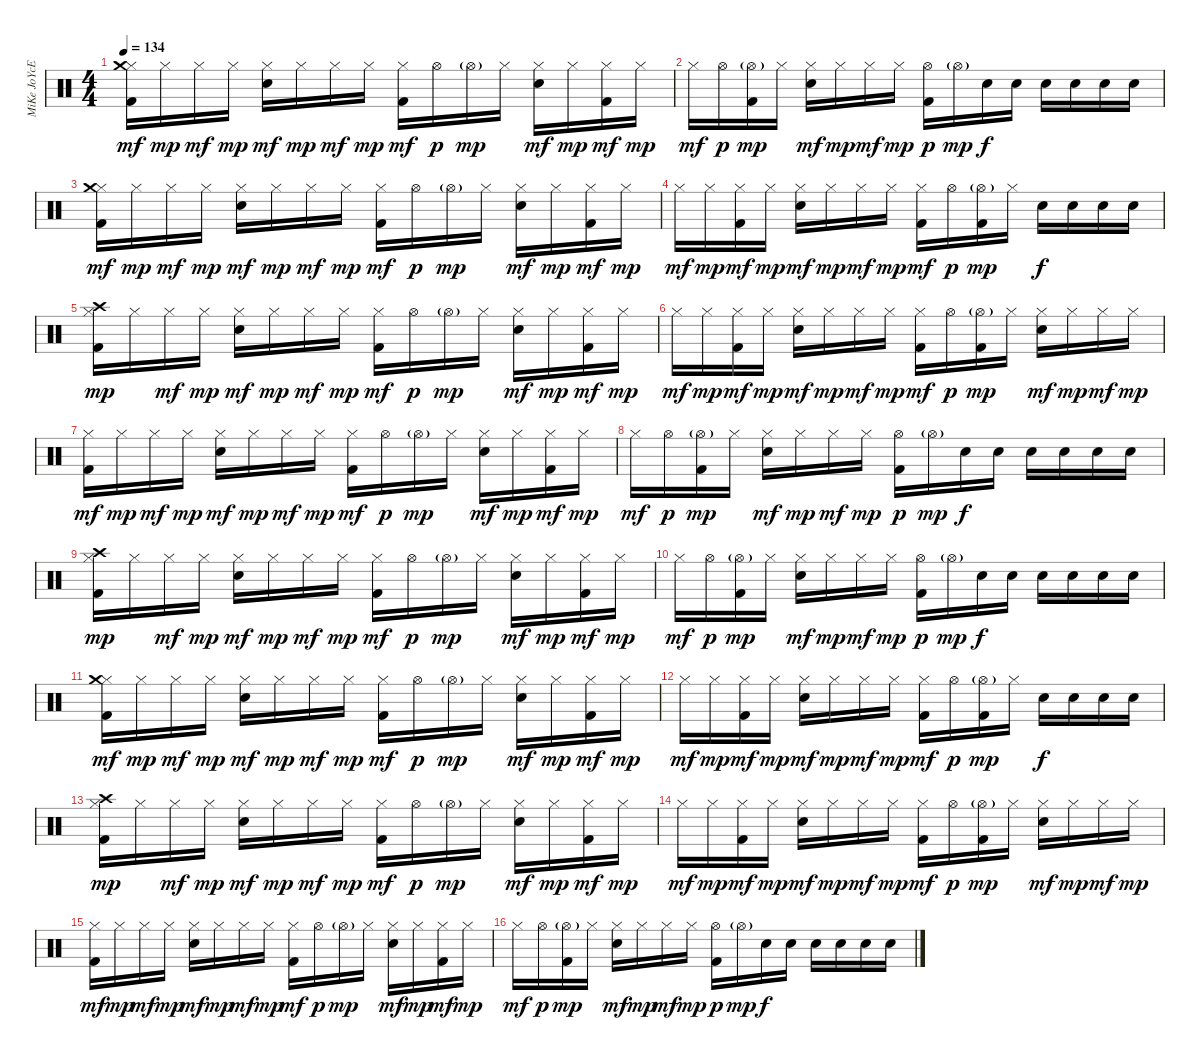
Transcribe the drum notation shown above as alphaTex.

\track ("MiKe JoYcE" "MiKe JoYcE") {instrument percussion}
\staff {score}
\articulation defaults
\ts (4 4)
\tempo 134
\clef neutral
\ks c
("Hi-Hat (closed)" "Crash medium (hit)" "Kick (hit) 2").16{dy mf} "Hi-Hat (closed)".16{dy mp} "Hi-Hat (closed)".16{dy mf} "Hi-Hat (closed)".16{dy mp} ("Hi-Hat (closed)" "Electric Snare (hit)").16{dy mf} "Hi-Hat (closed)".16{dy mp} "Hi-Hat (closed)".16{dy mf} "Hi-Hat (closed)".16{dy mp} ("Hi-Hat (closed)" "Kick (hit) 2").16{dy mf} "Hi-Hat (open)".16{dy p} "Hi-Hat (open)"{g}.16{dy mp} "Hi-Hat (closed)".16 ("Hi-Hat (closed)" "Electric Snare (hit)").16{dy mf} "Hi-Hat (closed)".16{dy mp} ("Hi-Hat (closed)" "Kick (hit) 2").16{dy mf} "Hi-Hat (closed)".16{dy mp} |
"Hi-Hat (closed)".16{dy mf} "Hi-Hat (open)".16{dy p} ("Hi-Hat (open)"{g} "Kick (hit) 2").16{dy mp} "Hi-Hat (closed)".16 ("Hi-Hat (closed)" "Electric Snare (hit)").16{dy mf} "Hi-Hat (closed)".16{dy mp} "Hi-Hat (closed)".16{dy mf} "Hi-Hat (closed)".16{dy mp} ("Hi-Hat (open)" "Kick (hit) 2").16{dy p} "Hi-Hat (open)"{g}.16{dy mp} "Electric Snare (hit)".16{dy f} "Electric Snare (hit)".16 "Electric Snare (hit)".16 "Electric Snare (hit)".16 "Electric Snare (hit)".16 "Electric Snare (hit)".16 |
("Hi-Hat (closed)" "Crash medium (hit)" "Kick (hit) 2").16{dy mf} "Hi-Hat (closed)".16{dy mp} "Hi-Hat (closed)".16{dy mf} "Hi-Hat (closed)".16{dy mp} ("Hi-Hat (closed)" "Electric Snare (hit)").16{dy mf} "Hi-Hat (closed)".16{dy mp} "Hi-Hat (closed)".16{dy mf} "Hi-Hat (closed)".16{dy mp} ("Hi-Hat (closed)" "Kick (hit) 2").16{dy mf} "Hi-Hat (open)".16{dy p} "Hi-Hat (open)"{g}.16{dy mp} "Hi-Hat (closed)".16 ("Hi-Hat (closed)" "Electric Snare (hit)").16{dy mf} "Hi-Hat (closed)".16{dy mp} ("Hi-Hat (closed)" "Kick (hit) 2").16{dy mf} "Hi-Hat (closed)".16{dy mp} |
"Hi-Hat (closed)".16{dy mf} "Hi-Hat (closed)".16{dy mp} ("Hi-Hat (closed)" "Kick (hit) 2").16{dy mf} "Hi-Hat (closed)".16{dy mp} ("Hi-Hat (closed)" "Electric Snare (hit)").16{dy mf} "Hi-Hat (closed)".16{dy mp} "Hi-Hat (closed)".16{dy mf} "Hi-Hat (closed)".16{dy mp} ("Hi-Hat (closed)" "Kick (hit) 2").16{dy mf} "Hi-Hat (open)".16{dy p} ("Hi-Hat (open)"{g} "Kick (hit) 2").16{dy mp} "Hi-Hat (closed)".16 "Electric Snare (hit)".16{dy f} "Electric Snare (hit)".16 "Electric Snare (hit)".16 "Electric Snare (hit)".16 |
("Hi-Hat (closed)" "Crash high (hit)" "Kick (hit) 2").16{dy mp} "Hi-Hat (closed)".16 "Hi-Hat (closed)".16{dy mf} "Hi-Hat (closed)".16{dy mp} ("Hi-Hat (closed)" "Electric Snare (hit)").16{dy mf} "Hi-Hat (closed)".16{dy mp} "Hi-Hat (closed)".16{dy mf} "Hi-Hat (closed)".16{dy mp} ("Hi-Hat (closed)" "Kick (hit) 2").16{dy mf} "Hi-Hat (open)".16{dy p} "Hi-Hat (open)"{g}.16{dy mp} "Hi-Hat (closed)".16 ("Hi-Hat (closed)" "Electric Snare (hit)").16{dy mf} "Hi-Hat (closed)".16{dy mp} ("Hi-Hat (closed)" "Kick (hit) 2").16{dy mf} "Hi-Hat (closed)".16{dy mp} |
"Hi-Hat (closed)".16{dy mf} "Hi-Hat (closed)".16{dy mp} ("Hi-Hat (closed)" "Kick (hit) 2").16{dy mf} "Hi-Hat (closed)".16{dy mp} ("Hi-Hat (closed)" "Electric Snare (hit)").16{dy mf} "Hi-Hat (closed)".16{dy mp} "Hi-Hat (closed)".16{dy mf} "Hi-Hat (closed)".16{dy mp} ("Hi-Hat (closed)" "Kick (hit) 2").16{dy mf} "Hi-Hat (open)".16{dy p} ("Hi-Hat (open)"{g} "Kick (hit) 2").16{dy mp} "Hi-Hat (closed)".16 ("Hi-Hat (closed)" "Electric Snare (hit)").16{dy mf} "Hi-Hat (closed)".16{dy mp} "Hi-Hat (closed)".16{dy mf} "Hi-Hat (closed)".16{dy mp} |
("Hi-Hat (closed)" "Kick (hit) 2").16{dy mf} "Hi-Hat (closed)".16{dy mp} "Hi-Hat (closed)".16{dy mf} "Hi-Hat (closed)".16{dy mp} ("Hi-Hat (closed)" "Electric Snare (hit)").16{dy mf} "Hi-Hat (closed)".16{dy mp} "Hi-Hat (closed)".16{dy mf} "Hi-Hat (closed)".16{dy mp} ("Hi-Hat (closed)" "Kick (hit) 2").16{dy mf} "Hi-Hat (open)".16{dy p} "Hi-Hat (open)"{g}.16{dy mp} "Hi-Hat (closed)".16 ("Hi-Hat (closed)" "Electric Snare (hit)").16{dy mf} "Hi-Hat (closed)".16{dy mp} ("Hi-Hat (closed)" "Kick (hit) 2").16{dy mf} "Hi-Hat (closed)".16{dy mp} |
"Hi-Hat (closed)".16{dy mf} "Hi-Hat (open)".16{dy p} ("Hi-Hat (open)"{g} "Kick (hit) 2").16{dy mp} "Hi-Hat (closed)".16 ("Hi-Hat (closed)" "Electric Snare (hit)").16{dy mf} "Hi-Hat (closed)".16{dy mp} "Hi-Hat (closed)".16{dy mf} "Hi-Hat (closed)".16{dy mp} ("Hi-Hat (open)" "Kick (hit) 2").16{dy p} "Hi-Hat (open)"{g}.16{dy mp} "Electric Snare (hit)".16{dy f} "Electric Snare (hit)".16 "Electric Snare (hit)".16 "Electric Snare (hit)".16 "Electric Snare (hit)".16 "Electric Snare (hit)".16 |
("Hi-Hat (closed)" "Crash high (hit)" "Kick (hit) 2").16{dy mp} "Hi-Hat (closed)".16 "Hi-Hat (closed)".16{dy mf} "Hi-Hat (closed)".16{dy mp} ("Hi-Hat (closed)" "Electric Snare (hit)").16{dy mf} "Hi-Hat (closed)".16{dy mp} "Hi-Hat (closed)".16{dy mf} "Hi-Hat (closed)".16{dy mp} ("Hi-Hat (closed)" "Kick (hit) 2").16{dy mf} "Hi-Hat (open)".16{dy p} "Hi-Hat (open)"{g}.16{dy mp} "Hi-Hat (closed)".16 ("Hi-Hat (closed)" "Electric Snare (hit)").16{dy mf} "Hi-Hat (closed)".16{dy mp} ("Hi-Hat (closed)" "Kick (hit) 2").16{dy mf} "Hi-Hat (closed)".16{dy mp} |
"Hi-Hat (closed)".16{dy mf} "Hi-Hat (open)".16{dy p} ("Hi-Hat (open)"{g} "Kick (hit) 2").16{dy mp} "Hi-Hat (closed)".16 ("Hi-Hat (closed)" "Electric Snare (hit)").16{dy mf} "Hi-Hat (closed)".16{dy mp} "Hi-Hat (closed)".16{dy mf} "Hi-Hat (closed)".16{dy mp} ("Hi-Hat (open)" "Kick (hit) 2").16{dy p} "Hi-Hat (open)"{g}.16{dy mp} "Electric Snare (hit)".16{dy f} "Electric Snare (hit)".16 "Electric Snare (hit)".16 "Electric Snare (hit)".16 "Electric Snare (hit)".16 "Electric Snare (hit)".16 |
("Hi-Hat (closed)" "Crash medium (hit)" "Kick (hit) 2").16{dy mf} "Hi-Hat (closed)".16{dy mp} "Hi-Hat (closed)".16{dy mf} "Hi-Hat (closed)".16{dy mp} ("Hi-Hat (closed)" "Electric Snare (hit)").16{dy mf} "Hi-Hat (closed)".16{dy mp} "Hi-Hat (closed)".16{dy mf} "Hi-Hat (closed)".16{dy mp} ("Hi-Hat (closed)" "Kick (hit) 2").16{dy mf} "Hi-Hat (open)".16{dy p} "Hi-Hat (open)"{g}.16{dy mp} "Hi-Hat (closed)".16 ("Hi-Hat (closed)" "Electric Snare (hit)").16{dy mf} "Hi-Hat (closed)".16{dy mp} ("Hi-Hat (closed)" "Kick (hit) 2").16{dy mf} "Hi-Hat (closed)".16{dy mp} |
"Hi-Hat (closed)".16{dy mf} "Hi-Hat (closed)".16{dy mp} ("Hi-Hat (closed)" "Kick (hit) 2").16{dy mf} "Hi-Hat (closed)".16{dy mp} ("Hi-Hat (closed)" "Electric Snare (hit)").16{dy mf} "Hi-Hat (closed)".16{dy mp} "Hi-Hat (closed)".16{dy mf} "Hi-Hat (closed)".16{dy mp} ("Hi-Hat (closed)" "Kick (hit) 2").16{dy mf} "Hi-Hat (open)".16{dy p} ("Hi-Hat (open)"{g} "Kick (hit) 2").16{dy mp} "Hi-Hat (closed)".16 "Electric Snare (hit)".16{dy f} "Electric Snare (hit)".16 "Electric Snare (hit)".16 "Electric Snare (hit)".16 |
("Hi-Hat (closed)" "Crash high (hit)" "Kick (hit) 2").16{dy mp} "Hi-Hat (closed)".16 "Hi-Hat (closed)".16{dy mf} "Hi-Hat (closed)".16{dy mp} ("Hi-Hat (closed)" "Electric Snare (hit)").16{dy mf} "Hi-Hat (closed)".16{dy mp} "Hi-Hat (closed)".16{dy mf} "Hi-Hat (closed)".16{dy mp} ("Hi-Hat (closed)" "Kick (hit) 2").16{dy mf} "Hi-Hat (open)".16{dy p} "Hi-Hat (open)"{g}.16{dy mp} "Hi-Hat (closed)".16 ("Hi-Hat (closed)" "Electric Snare (hit)").16{dy mf} "Hi-Hat (closed)".16{dy mp} ("Hi-Hat (closed)" "Kick (hit) 2").16{dy mf} "Hi-Hat (closed)".16{dy mp} |
"Hi-Hat (closed)".16{dy mf} "Hi-Hat (closed)".16{dy mp} ("Hi-Hat (closed)" "Kick (hit) 2").16{dy mf} "Hi-Hat (closed)".16{dy mp} ("Hi-Hat (closed)" "Electric Snare (hit)").16{dy mf} "Hi-Hat (closed)".16{dy mp} "Hi-Hat (closed)".16{dy mf} "Hi-Hat (closed)".16{dy mp} ("Hi-Hat (closed)" "Kick (hit) 2").16{dy mf} "Hi-Hat (open)".16{dy p} ("Hi-Hat (open)"{g} "Kick (hit) 2").16{dy mp} "Hi-Hat (closed)".16 ("Hi-Hat (closed)" "Electric Snare (hit)").16{dy mf} "Hi-Hat (closed)".16{dy mp} "Hi-Hat (closed)".16{dy mf} "Hi-Hat (closed)".16{dy mp} |
("Hi-Hat (closed)" "Kick (hit) 2").16{dy mf} "Hi-Hat (closed)".16{dy mp} "Hi-Hat (closed)".16{dy mf} "Hi-Hat (closed)".16{dy mp} ("Hi-Hat (closed)" "Electric Snare (hit)").16{dy mf} "Hi-Hat (closed)".16{dy mp} "Hi-Hat (closed)".16{dy mf} "Hi-Hat (closed)".16{dy mp} ("Hi-Hat (closed)" "Kick (hit) 2").16{dy mf} "Hi-Hat (open)".16{dy p} "Hi-Hat (open)"{g}.16{dy mp} "Hi-Hat (closed)".16 ("Hi-Hat (closed)" "Electric Snare (hit)").16{dy mf} "Hi-Hat (closed)".16{dy mp} ("Hi-Hat (closed)" "Kick (hit) 2").16{dy mf} "Hi-Hat (closed)".16{dy mp} |
"Hi-Hat (closed)".16{dy mf} "Hi-Hat (open)".16{dy p} ("Hi-Hat (open)"{g} "Kick (hit) 2").16{dy mp} "Hi-Hat (closed)".16 ("Hi-Hat (closed)" "Electric Snare (hit)").16{dy mf} "Hi-Hat (closed)".16{dy mp} "Hi-Hat (closed)".16{dy mf} "Hi-Hat (closed)".16{dy mp} ("Hi-Hat (open)" "Kick (hit) 2").16{dy p} "Hi-Hat (open)"{g}.16{dy mp} "Electric Snare (hit)".16{dy f} "Electric Snare (hit)".16 "Electric Snare (hit)".16 "Electric Snare (hit)".16 "Electric Snare (hit)".16 "Electric Snare (hit)".16
